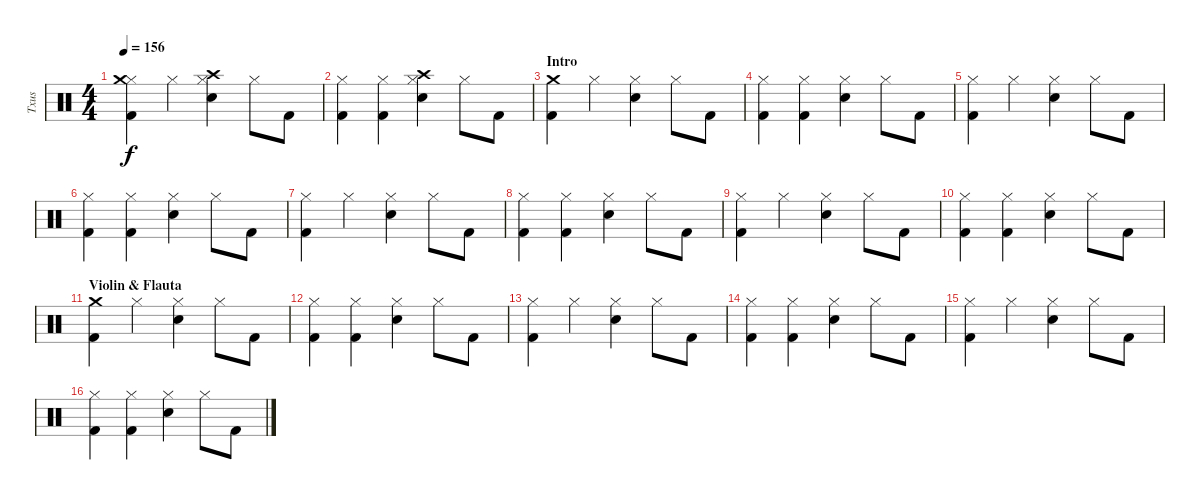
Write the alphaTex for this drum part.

\track ("Txus" "Txus") {instrument percussion}
\staff {score}
\articulation defaults
\ts (4 4)
\tempo 156
\clef neutral
\ks c
("Hi-Hat (closed)" "Crash medium (hit)" "Kick (hit) 2").4{dy f} "Hi-Hat (closed)".4 ("Snare (hit) 2" "Crash high (hit)" "Hi-Hat (closed)").4 "Hi-Hat (closed)".8 "Kick (hit) 2".8 |
("Kick (hit) 2" "Hi-Hat (closed)").4 ("Hi-Hat (closed)" "Kick (hit) 2").4 ("Hi-Hat (closed)" "Snare (hit) 2" "Crash high (hit)").4 "Hi-Hat (closed)".8 "Kick (hit) 2".8 |
\section ("" "Intro")
("Crash medium (hit)" "Kick (hit) 2").4 "Hi-Hat (closed)".4 ("Snare (hit) 2" "Hi-Hat (closed)").4 "Hi-Hat (closed)".8 "Kick (hit) 2".8 |
("Kick (hit) 2" "Hi-Hat (closed)").4 ("Hi-Hat (closed)" "Kick (hit) 2").4 ("Hi-Hat (closed)" "Snare (hit) 2").4 "Hi-Hat (closed)".8 "Kick (hit) 2".8 |
("Hi-Hat (closed)" "Kick (hit) 2").4 "Hi-Hat (closed)".4 ("Snare (hit) 2" "Hi-Hat (closed)").4 "Hi-Hat (closed)".8 "Kick (hit) 2".8 |
("Kick (hit) 2" "Hi-Hat (closed)").4 ("Hi-Hat (closed)" "Kick (hit) 2").4 ("Hi-Hat (closed)" "Snare (hit) 2").4 "Hi-Hat (closed)".8 "Kick (hit) 2".8 |
("Hi-Hat (closed)" "Kick (hit) 2").4 "Hi-Hat (closed)".4 ("Snare (hit) 2" "Hi-Hat (closed)").4 "Hi-Hat (closed)".8 "Kick (hit) 2".8 |
("Kick (hit) 2" "Hi-Hat (closed)").4 ("Hi-Hat (closed)" "Kick (hit) 2").4 ("Hi-Hat (closed)" "Snare (hit) 2").4 "Hi-Hat (closed)".8 "Kick (hit) 2".8 |
("Hi-Hat (closed)" "Kick (hit) 2").4 "Hi-Hat (closed)".4 ("Snare (hit) 2" "Hi-Hat (closed)").4 "Hi-Hat (closed)".8 "Kick (hit) 2".8 |
("Kick (hit) 2" "Hi-Hat (closed)").4 ("Hi-Hat (closed)" "Kick (hit) 2").4 ("Hi-Hat (closed)" "Snare (hit) 2").4 "Hi-Hat (closed)".8 "Kick (hit) 2".8 |
\section ("" "Violin & Flauta")
("Crash medium (hit)" "Kick (hit) 2").4 "Hi-Hat (closed)".4 ("Snare (hit) 2" "Hi-Hat (closed)").4 "Hi-Hat (closed)".8 "Kick (hit) 2".8 |
("Kick (hit) 2" "Hi-Hat (closed)").4 ("Hi-Hat (closed)" "Kick (hit) 2").4 ("Hi-Hat (closed)" "Snare (hit) 2").4 "Hi-Hat (closed)".8 "Kick (hit) 2".8 |
("Hi-Hat (closed)" "Kick (hit) 2").4 "Hi-Hat (closed)".4 ("Snare (hit) 2" "Hi-Hat (closed)").4 "Hi-Hat (closed)".8 "Kick (hit) 2".8 |
("Kick (hit) 2" "Hi-Hat (closed)").4 ("Hi-Hat (closed)" "Kick (hit) 2").4 ("Hi-Hat (closed)" "Snare (hit) 2").4 "Hi-Hat (closed)".8 "Kick (hit) 2".8 |
("Hi-Hat (closed)" "Kick (hit) 2").4 "Hi-Hat (closed)".4 ("Snare (hit) 2" "Hi-Hat (closed)").4 "Hi-Hat (closed)".8 "Kick (hit) 2".8 |
("Kick (hit) 2" "Hi-Hat (closed)").4 ("Hi-Hat (closed)" "Kick (hit) 2").4 ("Hi-Hat (closed)" "Snare (hit) 2").4 "Hi-Hat (closed)".8 "Kick (hit) 2".8
